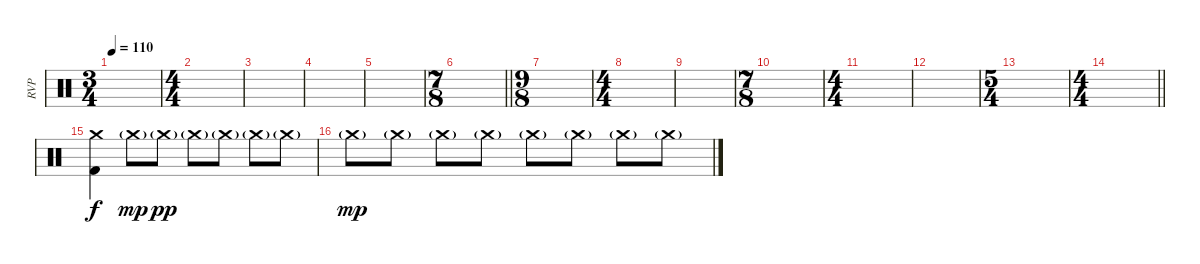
\track ("RVP" "RVP") {instrument percussion}
\staff {score}
\articulation defaults
\ts (3 4)
\tempo 110
\clef neutral
\ks c
|
\ts (4 4)
|
|
|
|
\ts (7 8)
\barLineRight lightlight
|
\ts (9 8)
|
\ts (4 4)
|
|
\ts (7 8)
|
\ts (4 4)
|
|
\ts (5 4)
|
\ts (4 4)
\barLineRight lightlight
|
("Crash medium (hit)" "Kick (hit) 2").4 "Crash medium (hit)"{g}.8{dy mp} "Crash medium (hit)"{g}.8{dy pp} "Crash medium (hit)"{g}.8 "Crash medium (hit)"{g}.8 "Crash medium (hit)"{g}.8 "Crash medium (hit)"{g}.8 |
"Crash medium (hit)"{g}.8{dy mp} "Crash medium (hit)"{g}.8 "Crash medium (hit)"{g}.8 "Crash medium (hit)"{g}.8 "Crash medium (hit)"{g}.8 "Crash medium (hit)"{g}.8 "Crash medium (hit)"{g}.8 "Crash medium (hit)"{g}.8
